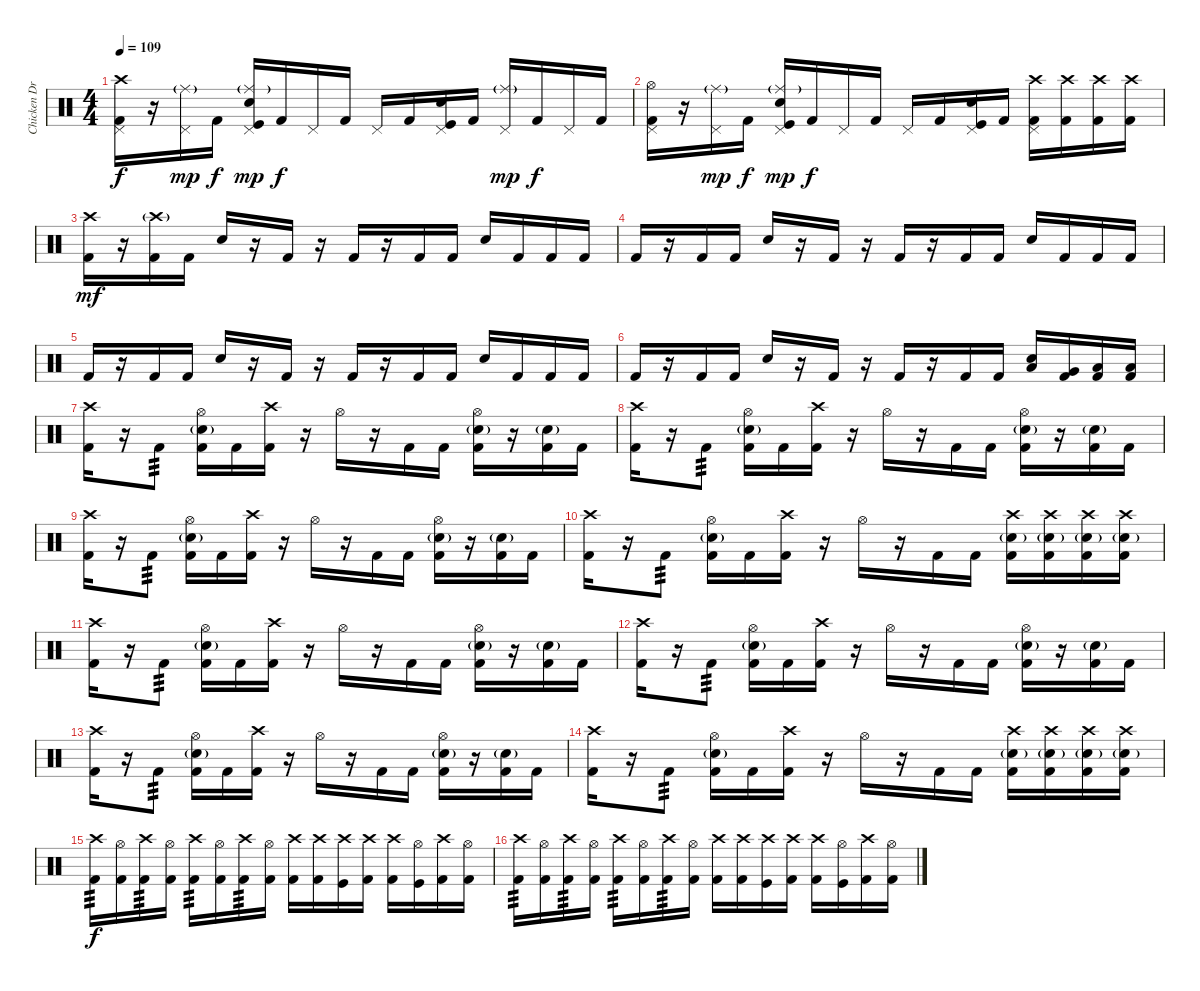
\track ("Chicken Drum" "Chicken Dr") {instrument percussion}
\staff {score}
\articulation defaults
\ts (4 4)
\tempo 109
\clef neutral
\ks c
("Crash high (hit)" "Pedal Hi-Hat (hit)" "Kick (hit) 2").16{dy f} r.16 ("Ride (middle)"{g} "Pedal Hi-Hat (hit)").16{dy mp} "Kick (hit) 2".16{dy f} ("Ride (middle)"{g} "Pedal Hi-Hat (hit)" "Snare (hit) 2" "Kick (hit)").16{dy mp} "Kick (hit) 2".16{dy f} "Pedal Hi-Hat (hit)".16 "Kick (hit) 2".16 "Pedal Hi-Hat (hit)".16 "Kick (hit) 2".16 ("Pedal Hi-Hat (hit)" "Snare (hit) 2" "Kick (hit)").16 "Kick (hit) 2".16 ("Ride (middle)"{g} "Pedal Hi-Hat (hit)").16{dy mp} "Kick (hit) 2".16{dy f} "Pedal Hi-Hat (hit)".16 "Kick (hit) 2".16 |
("Hi-Hat (open)" "Pedal Hi-Hat (hit)" "Kick (hit) 2").16 r.16 ("Ride (middle)"{g} "Pedal Hi-Hat (hit)").16{dy mp} "Kick (hit) 2".16{dy f} ("Ride (middle)"{g} "Pedal Hi-Hat (hit)" "Snare (hit) 2" "Kick (hit)").16{dy mp} "Kick (hit) 2".16{dy f} "Pedal Hi-Hat (hit)".16 "Kick (hit) 2".16 "Pedal Hi-Hat (hit)".16 "Kick (hit) 2".16 ("Pedal Hi-Hat (hit)" "Snare (hit) 2" "Kick (hit)").16 "Kick (hit) 2".16 ("Crash high (hit)" "Pedal Hi-Hat (hit)" "Kick (hit) 2").16 ("Crash high (hit)" "Kick (hit) 2").16 ("Crash high (hit)" "Kick (hit) 2").16 ("Crash high (hit)" "Kick (hit) 2").16 |
("Crash high (hit)" "Kick (hit) 2").16{dy mf} r.16 ("Crash high (hit)"{g} "Kick (hit) 2").16 "Kick (hit) 2".16 "Snare (hit) 2".16 r.16 "Kick (hit) 2".16 r.16 "Kick (hit) 2".16 r.16 "Kick (hit) 2".16 "Kick (hit) 2".16 "Snare (hit) 2".16 "Kick (hit) 2".16 "Kick (hit) 2".16 "Kick (hit) 2".16 |
"Kick (hit) 2".16 r.16 "Kick (hit) 2".16 "Kick (hit) 2".16 "Snare (hit) 2".16 r.16 "Kick (hit) 2".16 r.16 "Kick (hit) 2".16 r.16 "Kick (hit) 2".16 "Kick (hit) 2".16 "Snare (hit) 2".16 "Kick (hit) 2".16 "Kick (hit) 2".16 "Kick (hit) 2".16 |
"Kick (hit) 2".16 r.16 "Kick (hit) 2".16 "Kick (hit) 2".16 "Snare (hit) 2".16 r.16 "Kick (hit) 2".16 r.16 "Kick (hit) 2".16 r.16 "Kick (hit) 2".16 "Kick (hit) 2".16 "Snare (hit) 2".16 "Kick (hit) 2".16 "Kick (hit) 2".16 "Kick (hit) 2".16 |
"Kick (hit) 2".16 r.16 "Kick (hit) 2".16 "Kick (hit) 2".16 "Snare (hit) 2".16 r.16 "Kick (hit) 2".16 r.16 "Kick (hit) 2".16 r.16 "Kick (hit) 2".16 "Kick (hit) 2".16 ("Low Tom (hit)" "Snare (hit) 2").16 ("Very Low Tom (hit)" "Kick (hit) 2").16 ("Low Floor Tom (hit)" "Kick (hit) 2").16 ("Low Floor Tom (hit)" "Kick (hit) 2").16 |
("Crash high (hit)" "Kick (hit) 2").16 r.16 "Kick (hit) 2".8{tp 3} ("Hi-Hat (open)" "Snare (hit) 2"{g} "Kick (hit) 2").16 "Kick (hit) 2".16 ("Crash high (hit)" "Kick (hit) 2").16 r.16 "Hi-Hat (open)".16 r.16 "Kick (hit) 2".16 "Kick (hit) 2".16 ("Hi-Hat (open)" "Snare (hit) 2"{g} "Kick (hit) 2").16 r.16 ("Snare (hit) 2"{g} "Kick (hit) 2").16 "Kick (hit) 2".16 |
("Crash high (hit)" "Kick (hit) 2").16 r.16 "Kick (hit) 2".8{tp 3} ("Hi-Hat (open)" "Snare (hit) 2"{g} "Kick (hit) 2").16 "Kick (hit) 2".16 ("Crash high (hit)" "Kick (hit) 2").16 r.16 "Hi-Hat (open)".16 r.16 "Kick (hit) 2".16 "Kick (hit) 2".16 ("Hi-Hat (open)" "Snare (hit) 2"{g} "Kick (hit) 2").16 r.16 ("Snare (hit) 2"{g} "Kick (hit) 2").16 "Kick (hit) 2".16 |
("Crash high (hit)" "Kick (hit) 2").16 r.16 "Kick (hit) 2".8{tp 3} ("Hi-Hat (open)" "Snare (hit) 2"{g} "Kick (hit) 2").16 "Kick (hit) 2".16 ("Crash high (hit)" "Kick (hit) 2").16 r.16 "Hi-Hat (open)".16 r.16 "Kick (hit) 2".16 "Kick (hit) 2".16 ("Hi-Hat (open)" "Snare (hit) 2"{g} "Kick (hit) 2").16 r.16 ("Snare (hit) 2"{g} "Kick (hit) 2").16 "Kick (hit) 2".16 |
("Crash high (hit)" "Kick (hit) 2").16 r.16 "Kick (hit) 2".8{tp 3} ("Hi-Hat (open)" "Snare (hit) 2"{g} "Kick (hit) 2").16 "Kick (hit) 2".16 ("Crash high (hit)" "Kick (hit) 2").16 r.16 "Hi-Hat (open)".16 r.16 "Kick (hit) 2".16 "Kick (hit) 2".16 ("Crash high (hit)" "Snare (hit) 2"{g} "Kick (hit) 2").16 ("Crash high (hit)" "Snare (hit) 2"{g} "Kick (hit) 2").16 ("Crash high (hit)" "Snare (hit) 2"{g} "Kick (hit) 2").16 ("Crash high (hit)" "Snare (hit) 2"{g} "Kick (hit) 2").16 |
("Crash high (hit)" "Kick (hit) 2").16 r.16 "Kick (hit) 2".8{tp 3} ("Hi-Hat (open)" "Snare (hit) 2"{g} "Kick (hit) 2").16 "Kick (hit) 2".16 ("Crash high (hit)" "Kick (hit) 2").16 r.16 "Hi-Hat (open)".16 r.16 "Kick (hit) 2".16 "Kick (hit) 2".16 ("Hi-Hat (open)" "Snare (hit) 2"{g} "Kick (hit) 2").16 r.16 ("Snare (hit) 2"{g} "Kick (hit) 2").16 "Kick (hit) 2".16 |
("Crash high (hit)" "Kick (hit) 2").16 r.16 "Kick (hit) 2".8{tp 3} ("Hi-Hat (open)" "Snare (hit) 2"{g} "Kick (hit) 2").16 "Kick (hit) 2".16 ("Crash high (hit)" "Kick (hit) 2").16 r.16 "Hi-Hat (open)".16 r.16 "Kick (hit) 2".16 "Kick (hit) 2".16 ("Hi-Hat (open)" "Snare (hit) 2"{g} "Kick (hit) 2").16 r.16 ("Snare (hit) 2"{g} "Kick (hit) 2").16 "Kick (hit) 2".16 |
("Crash high (hit)" "Kick (hit) 2").16 r.16 "Kick (hit) 2".8{tp 3} ("Hi-Hat (open)" "Snare (hit) 2"{g} "Kick (hit) 2").16 "Kick (hit) 2".16 ("Crash high (hit)" "Kick (hit) 2").16 r.16 "Hi-Hat (open)".16 r.16 "Kick (hit) 2".16 "Kick (hit) 2".16 ("Hi-Hat (open)" "Snare (hit) 2"{g} "Kick (hit) 2").16 r.16 ("Snare (hit) 2"{g} "Kick (hit) 2").16 "Kick (hit) 2".16 |
("Crash high (hit)" "Kick (hit) 2").16 r.16 "Kick (hit) 2".8{tp 3} ("Hi-Hat (open)" "Snare (hit) 2"{g} "Kick (hit) 2").16 "Kick (hit) 2".16 ("Crash high (hit)" "Kick (hit) 2").16 r.16 "Hi-Hat (open)".16 r.16 "Kick (hit) 2".16 "Kick (hit) 2".16 ("Crash high (hit)" "Snare (hit) 2"{g} "Kick (hit) 2").16 ("Crash high (hit)" "Snare (hit) 2"{g} "Kick (hit) 2").16 ("Crash high (hit)" "Snare (hit) 2"{g} "Kick (hit) 2").16 ("Crash high (hit)" "Snare (hit) 2"{g} "Kick (hit) 2").16 |
("Crash high (hit)" "Kick (hit) 2").16{tp 3 dy f} ("Hi-Hat (open)" "Kick (hit) 2").16 ("Crash high (hit)" "Kick (hit) 2").16{tp 3} ("Hi-Hat (open)" "Kick (hit) 2").16 ("Crash high (hit)" "Kick (hit) 2").16{tp 3} ("Hi-Hat (open)" "Kick (hit) 2").16 ("Crash high (hit)" "Kick (hit) 2").16{tp 3} ("Hi-Hat (open)" "Kick (hit) 2").16 ("Crash high (hit)" "Kick (hit) 2").16 ("Crash high (hit)" "Kick (hit) 2").16 ("Crash high (hit)" "Kick (hit)").16 ("Crash high (hit)" "Kick (hit) 2").16 ("Crash high (hit)" "Kick (hit) 2").16 ("Hi-Hat (open)" "Kick (hit)").16 ("Crash high (hit)" "Kick (hit) 2").16 ("Hi-Hat (open)" "Kick (hit) 2").16 |
("Crash high (hit)" "Kick (hit) 2").16{tp 3} ("Hi-Hat (open)" "Kick (hit) 2").16 ("Crash high (hit)" "Kick (hit) 2").16{tp 3} ("Hi-Hat (open)" "Kick (hit) 2").16 ("Crash high (hit)" "Kick (hit) 2").16{tp 3} ("Hi-Hat (open)" "Kick (hit) 2").16 ("Crash high (hit)" "Kick (hit) 2").16{tp 3} ("Hi-Hat (open)" "Kick (hit) 2").16 ("Crash high (hit)" "Kick (hit) 2").16 ("Crash high (hit)" "Kick (hit) 2").16 ("Crash high (hit)" "Kick (hit)").16 ("Crash high (hit)" "Kick (hit) 2").16 ("Crash high (hit)" "Kick (hit) 2").16 ("Hi-Hat (open)" "Kick (hit)").16 ("Crash high (hit)" "Kick (hit) 2").16 ("Hi-Hat (open)" "Kick (hit) 2").16
